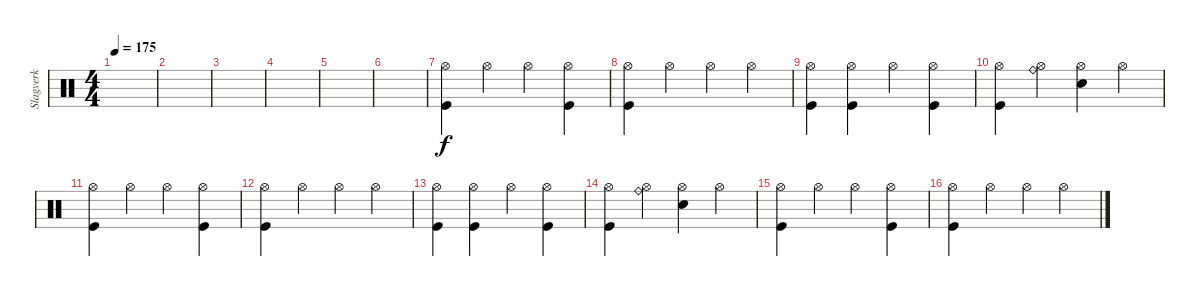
\track ("Slagverk" "Slagverk") {instrument percussion}
\staff {score}
\articulation defaults
\ts (4 4)
\tempo 175
\clef neutral
\ks c
|
|
|
|
|
|
("Hi-Hat (open)" "Kick (hit)").4 "Hi-Hat (open)".4 "Hi-Hat (open)".4 ("Hi-Hat (open)" "Kick (hit)").4 |
("Hi-Hat (open)" "Kick (hit)").4 "Hi-Hat (open)".4 "Hi-Hat (open)".4 "Hi-Hat (open)".4 |
("Hi-Hat (open)" "Kick (hit)").4 ("Hi-Hat (open)" "Kick (hit)").4 "Hi-Hat (open)".4 ("Hi-Hat (open)" "Kick (hit)").4 |
("Hi-Hat (open)" "Kick (hit)").4 ("Hi-Hat (open)" "Ride (bell)").4 ("Hi-Hat (open)" "Electric Snare (hit)").4 "Hi-Hat (open)".4 |
("Hi-Hat (open)" "Kick (hit)").4 "Hi-Hat (open)".4 "Hi-Hat (open)".4 ("Hi-Hat (open)" "Kick (hit)").4 |
("Hi-Hat (open)" "Kick (hit)").4 "Hi-Hat (open)".4 "Hi-Hat (open)".4 "Hi-Hat (open)".4 |
("Hi-Hat (open)" "Kick (hit)").4 ("Hi-Hat (open)" "Kick (hit)").4 "Hi-Hat (open)".4 ("Hi-Hat (open)" "Kick (hit)").4 |
("Hi-Hat (open)" "Kick (hit)").4 ("Hi-Hat (open)" "Ride (bell)").4 ("Hi-Hat (open)" "Electric Snare (hit)").4 "Hi-Hat (open)".4 |
("Hi-Hat (open)" "Kick (hit)").4 "Hi-Hat (open)".4 "Hi-Hat (open)".4 ("Hi-Hat (open)" "Kick (hit)").4 |
("Hi-Hat (open)" "Kick (hit)").4 "Hi-Hat (open)".4 "Hi-Hat (open)".4 "Hi-Hat (open)".4
